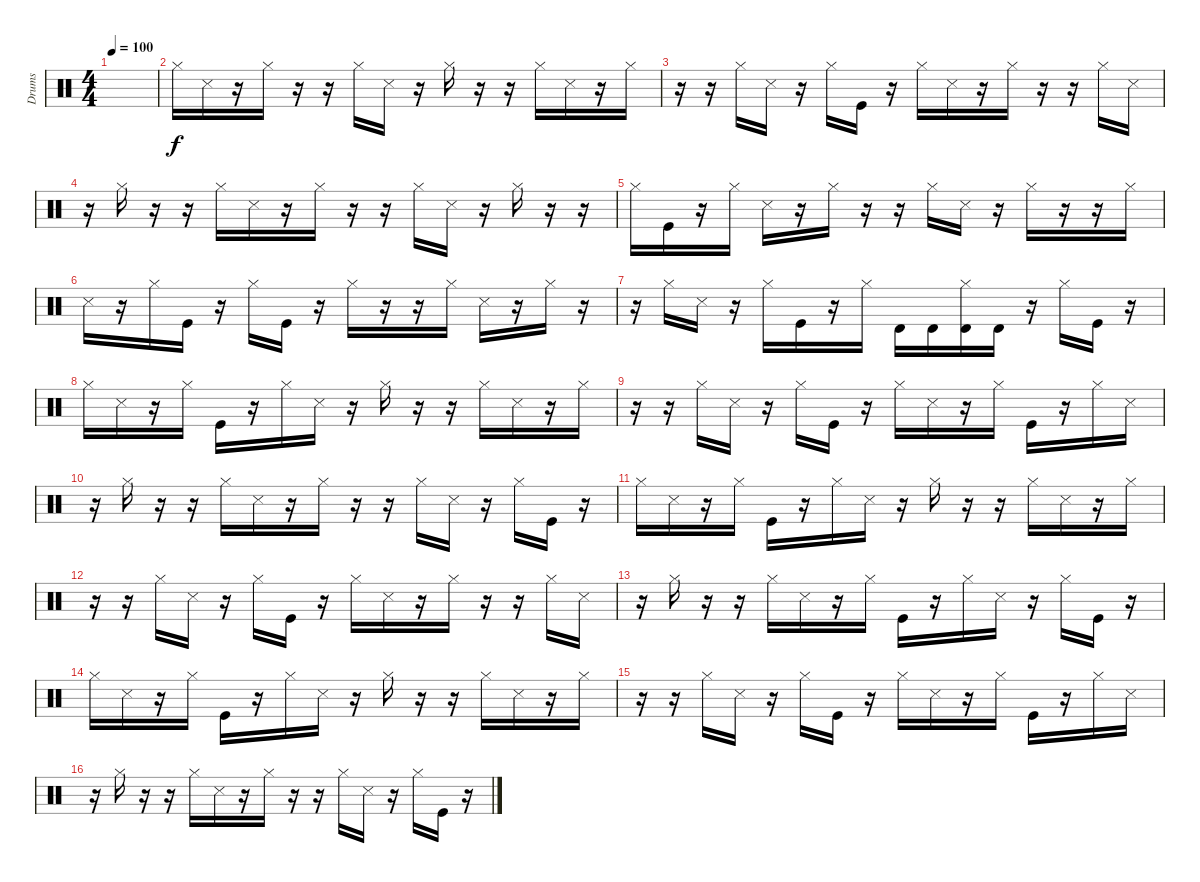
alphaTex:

\track ("Drums" "Drums") {instrument percussion}
\staff {score}
\articulation defaults
\ts (4 4)
\tempo 100
\clef neutral
\ks c
|
"Hi-Hat (closed)".16 "Snare (side stick) 3".16 r.16 "Hi-Hat (closed)".16 r.16 r.16 "Hi-Hat (closed)".16 "Snare (side stick) 3".16 r.16 "Hi-Hat (closed)".16 r.16 r.16 "Hi-Hat (closed)".16 "Snare (side stick) 3".16 r.16 "Hi-Hat (closed)".16 |
r.16 r.16 "Hi-Hat (closed)".16 "Snare (side stick) 3".16 r.16 "Hi-Hat (closed)".16 "Kick (hit)".16 r.16 "Hi-Hat (closed)".16 "Snare (side stick) 3".16 r.16 "Hi-Hat (closed)".16 r.16 r.16 "Hi-Hat (closed)".16 "Snare (side stick) 3".16 |
r.16 "Hi-Hat (closed)".16 r.16 r.16 "Hi-Hat (closed)".16 "Snare (side stick) 3".16 r.16 "Hi-Hat (closed)".16 r.16 r.16 "Hi-Hat (closed)".16 "Snare (side stick) 3".16 r.16 "Hi-Hat (closed)".16 r.16 r.16 |
"Hi-Hat (closed)".16 "Kick (hit)".16 r.16 "Hi-Hat (closed)".16 "Snare (side stick) 3".16 r.16 "Hi-Hat (closed)".16 r.16 r.16 "Hi-Hat (closed)".16 "Snare (side stick) 3".16 r.16 "Hi-Hat (closed)".16 r.16 r.16 "Hi-Hat (closed)".16 |
"Snare (side stick) 3".16 r.16 "Hi-Hat (closed)".16 "Kick (hit)".16 r.16 "Hi-Hat (closed)".16 "Kick (hit)".16 r.16 "Hi-Hat (closed)".16 r.16 r.16 "Hi-Hat (closed)".16 "Snare (side stick) 3".16 r.16 "Hi-Hat (closed)".16 r.16 |
r.16 "Hi-Hat (closed)".16 "Snare (side stick) 3".16 r.16 "Hi-Hat (closed)".16 "Kick (hit)".16 r.16 "Hi-Hat (closed)".16 "Timbale high (hit)".16 "Timbale high (hit)".16 ("Hi-Hat (closed)" "Timbale high (hit)").16 "Timbale high (hit)".16 r.16 "Hi-Hat (closed)".16 "Kick (hit)".16 r.16 |
"Hi-Hat (closed)".16 "Snare (side stick) 3".16 r.16 "Hi-Hat (closed)".16 "Kick (hit)".16 r.16 "Hi-Hat (closed)".16 "Snare (side stick) 3".16 r.16 "Hi-Hat (closed)".16 r.16 r.16 "Hi-Hat (closed)".16 "Snare (side stick) 3".16 r.16 "Hi-Hat (closed)".16 |
r.16 r.16 "Hi-Hat (closed)".16 "Snare (side stick) 3".16 r.16 "Hi-Hat (closed)".16 "Kick (hit)".16 r.16 "Hi-Hat (closed)".16 "Snare (side stick) 3".16 r.16 "Hi-Hat (closed)".16 "Kick (hit)".16 r.16 "Hi-Hat (closed)".16 "Snare (side stick) 3".16 |
r.16 "Hi-Hat (closed)".16 r.16 r.16 "Hi-Hat (closed)".16 "Snare (side stick) 3".16 r.16 "Hi-Hat (closed)".16 r.16 r.16 "Hi-Hat (closed)".16 "Snare (side stick) 3".16 r.16 "Hi-Hat (closed)".16 "Kick (hit)".16 r.16 |
"Hi-Hat (closed)".16 "Snare (side stick) 3".16 r.16 "Hi-Hat (closed)".16 "Kick (hit)".16 r.16 "Hi-Hat (closed)".16 "Snare (side stick) 3".16 r.16 "Hi-Hat (closed)".16 r.16 r.16 "Hi-Hat (closed)".16 "Snare (side stick) 3".16 r.16 "Hi-Hat (closed)".16 |
r.16 r.16 "Hi-Hat (closed)".16 "Snare (side stick) 3".16 r.16 "Hi-Hat (closed)".16 "Kick (hit)".16 r.16 "Hi-Hat (closed)".16 "Snare (side stick) 3".16 r.16 "Hi-Hat (closed)".16 r.16 r.16 "Hi-Hat (closed)".16 "Snare (side stick) 3".16 |
r.16 "Hi-Hat (closed)".16 r.16 r.16 "Hi-Hat (closed)".16 "Snare (side stick) 3".16 r.16 "Hi-Hat (closed)".16 "Kick (hit)".16 r.16 "Hi-Hat (closed)".16 "Snare (side stick) 3".16 r.16 "Hi-Hat (closed)".16 "Kick (hit)".16 r.16 |
"Hi-Hat (closed)".16 "Snare (side stick) 3".16 r.16 "Hi-Hat (closed)".16 "Kick (hit)".16 r.16 "Hi-Hat (closed)".16 "Snare (side stick) 3".16 r.16 "Hi-Hat (closed)".16 r.16 r.16 "Hi-Hat (closed)".16 "Snare (side stick) 3".16 r.16 "Hi-Hat (closed)".16 |
r.16 r.16 "Hi-Hat (closed)".16 "Snare (side stick) 3".16 r.16 "Hi-Hat (closed)".16 "Kick (hit)".16 r.16 "Hi-Hat (closed)".16 "Snare (side stick) 3".16 r.16 "Hi-Hat (closed)".16 "Kick (hit)".16 r.16 "Hi-Hat (closed)".16 "Snare (side stick) 3".16 |
r.16 "Hi-Hat (closed)".16 r.16 r.16 "Hi-Hat (closed)".16 "Snare (side stick) 3".16 r.16 "Hi-Hat (closed)".16 r.16 r.16 "Hi-Hat (closed)".16 "Snare (side stick) 3".16 r.16 "Hi-Hat (closed)".16 "Kick (hit)".16 r.16
